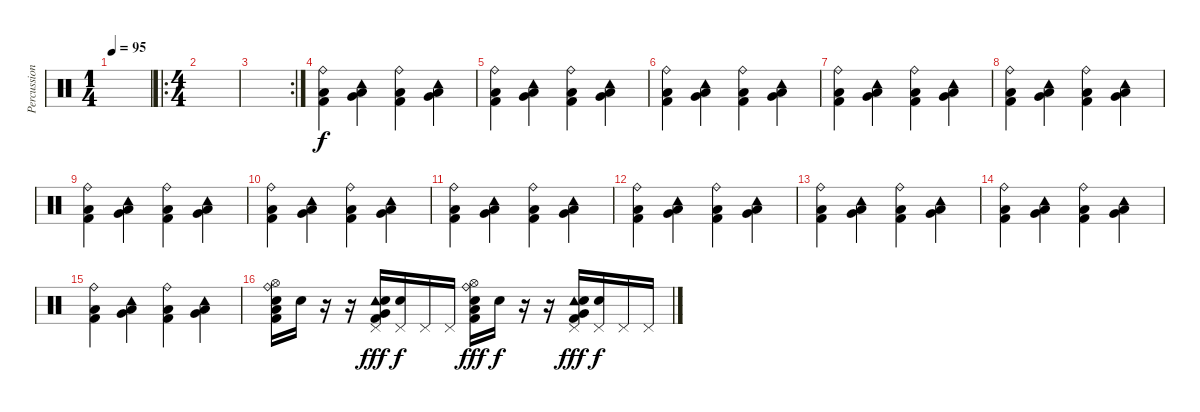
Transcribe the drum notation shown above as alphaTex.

\track ("Percussion" "Percussion") {instrument percussion}
\staff {score}
\articulation defaults
\ts (1 4)
\tempo 95
\clef neutral
\ks c
|
\ro
\ts (4 4)
|
\rc 2
|
("Low Floor Tom (hit)" "Kick (hit) 2" "Ride (bell)").4 ("Very Low Tom (hit)" "Low Floor Tom (hit)" "Tambourine (hit)").4 ("Low Floor Tom (hit)" "Kick (hit) 2" "Ride (bell)").4 ("Very Low Tom (hit)" "Low Floor Tom (hit)" "Tambourine (hit)").4 |
("Low Floor Tom (hit)" "Kick (hit) 2" "Ride (bell)").4 ("Very Low Tom (hit)" "Low Floor Tom (hit)" "Tambourine (hit)").4 ("Low Floor Tom (hit)" "Kick (hit) 2" "Ride (bell)").4 ("Very Low Tom (hit)" "Low Floor Tom (hit)" "Tambourine (hit)").4 |
("Low Floor Tom (hit)" "Kick (hit) 2" "Ride (bell)").4 ("Very Low Tom (hit)" "Low Floor Tom (hit)" "Tambourine (hit)").4 ("Low Floor Tom (hit)" "Kick (hit) 2" "Ride (bell)").4 ("Very Low Tom (hit)" "Low Floor Tom (hit)" "Tambourine (hit)").4 |
("Low Floor Tom (hit)" "Kick (hit) 2" "Ride (bell)").4 ("Very Low Tom (hit)" "Low Floor Tom (hit)" "Tambourine (hit)").4 ("Low Floor Tom (hit)" "Kick (hit) 2" "Ride (bell)").4 ("Very Low Tom (hit)" "Low Floor Tom (hit)" "Tambourine (hit)").4 |
("Low Floor Tom (hit)" "Kick (hit) 2" "Ride (bell)").4 ("Very Low Tom (hit)" "Low Floor Tom (hit)" "Tambourine (hit)").4 ("Low Floor Tom (hit)" "Kick (hit) 2" "Ride (bell)").4 ("Very Low Tom (hit)" "Low Floor Tom (hit)" "Tambourine (hit)").4 |
("Low Floor Tom (hit)" "Kick (hit) 2" "Ride (bell)").4 ("Very Low Tom (hit)" "Low Floor Tom (hit)" "Tambourine (hit)").4 ("Low Floor Tom (hit)" "Kick (hit) 2" "Ride (bell)").4 ("Very Low Tom (hit)" "Low Floor Tom (hit)" "Tambourine (hit)").4 |
("Low Floor Tom (hit)" "Kick (hit) 2" "Ride (bell)").4 ("Very Low Tom (hit)" "Low Floor Tom (hit)" "Tambourine (hit)").4 ("Low Floor Tom (hit)" "Kick (hit) 2" "Ride (bell)").4 ("Very Low Tom (hit)" "Low Floor Tom (hit)" "Tambourine (hit)").4 |
("Low Floor Tom (hit)" "Kick (hit) 2" "Ride (bell)").4 ("Very Low Tom (hit)" "Low Floor Tom (hit)" "Tambourine (hit)").4 ("Low Floor Tom (hit)" "Kick (hit) 2" "Ride (bell)").4 ("Very Low Tom (hit)" "Low Floor Tom (hit)" "Tambourine (hit)").4 |
("Low Floor Tom (hit)" "Kick (hit) 2" "Ride (bell)").4 ("Very Low Tom (hit)" "Low Floor Tom (hit)" "Tambourine (hit)").4 ("Low Floor Tom (hit)" "Kick (hit) 2" "Ride (bell)").4 ("Very Low Tom (hit)" "Low Floor Tom (hit)" "Tambourine (hit)").4 |
("Low Floor Tom (hit)" "Kick (hit) 2" "Ride (bell)").4 ("Very Low Tom (hit)" "Low Floor Tom (hit)" "Tambourine (hit)").4 ("Low Floor Tom (hit)" "Kick (hit) 2" "Ride (bell)").4 ("Very Low Tom (hit)" "Low Floor Tom (hit)" "Tambourine (hit)").4 |
("Low Floor Tom (hit)" "Kick (hit) 2" "Ride (bell)").4 ("Very Low Tom (hit)" "Low Floor Tom (hit)" "Tambourine (hit)").4 ("Low Floor Tom (hit)" "Kick (hit) 2" "Ride (bell)").4 ("Very Low Tom (hit)" "Low Floor Tom (hit)" "Tambourine (hit)").4 |
("Low Floor Tom (hit)" "Kick (hit) 2" "Ride (bell)").4 ("Very Low Tom (hit)" "Low Floor Tom (hit)" "Tambourine (hit)").4 ("Low Floor Tom (hit)" "Kick (hit) 2" "Ride (bell)").4 ("Very Low Tom (hit)" "Low Floor Tom (hit)" "Tambourine (hit)").4 |
("Low Floor Tom (hit)" "Kick (hit) 2" "Ride (bell)" "Hi-Hat (open)" "Snare (hit) 2").16 "Snare (hit) 2".16{dy f} r.16 r.16 ("Very Low Tom (hit)" "Kick (hit) 2" "Tambourine (hit)" "Pedal Hi-Hat (hit)" "Snare (hit) 2").16{dy fff} ("Pedal Hi-Hat (hit)" "Snare (hit) 2").16{dy f} "Pedal Hi-Hat (hit)".16 "Pedal Hi-Hat (hit)".16 ("Low Floor Tom (hit)" "Kick (hit) 2" "Ride (bell)" "Hi-Hat (open)" "Snare (hit) 2").16{dy fff} "Snare (hit) 2".16{dy f} r.16 r.16 ("Very Low Tom (hit)" "Kick (hit) 2" "Tambourine (hit)" "Pedal Hi-Hat (hit)" "Snare (hit) 2").16{dy fff} ("Pedal Hi-Hat (hit)" "Snare (hit) 2").16{dy f} "Pedal Hi-Hat (hit)".16 "Pedal Hi-Hat (hit)".16
